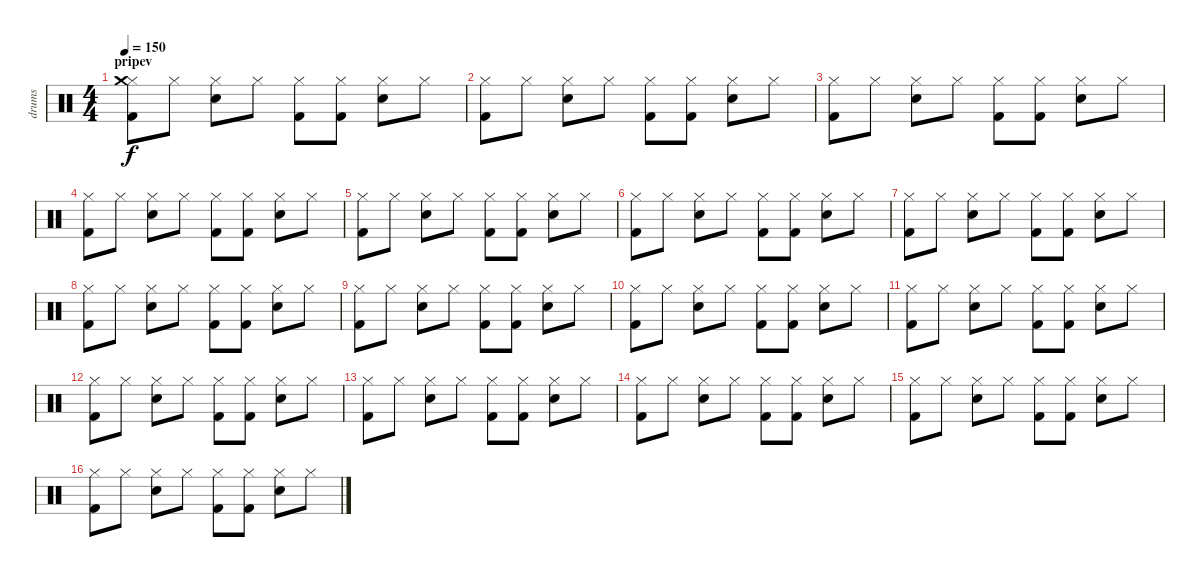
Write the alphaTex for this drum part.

\track ("drums" "drums") {instrument percussion}
\staff {score}
\articulation defaults
\ts (4 4)
\section ("" "pripev")
\tempo 150
\clef neutral
\ks c
("Kick (hit) 2" "Hi-Hat (closed)" "Crash medium (hit)").8{dy f} "Hi-Hat (closed)".8 ("Snare (hit) 2" "Hi-Hat (closed)").8 "Hi-Hat (closed)".8 ("Kick (hit) 2" "Hi-Hat (closed)").8 ("Kick (hit) 2" "Hi-Hat (closed)").8 ("Snare (hit) 2" "Hi-Hat (closed)").8 "Hi-Hat (closed)".8 |
("Kick (hit) 2" "Hi-Hat (closed)").8 "Hi-Hat (closed)".8 ("Snare (hit) 2" "Hi-Hat (closed)").8 "Hi-Hat (closed)".8 ("Kick (hit) 2" "Hi-Hat (closed)").8 ("Kick (hit) 2" "Hi-Hat (closed)").8 ("Snare (hit) 2" "Hi-Hat (closed)").8 "Hi-Hat (closed)".8 |
("Kick (hit) 2" "Hi-Hat (closed)").8 "Hi-Hat (closed)".8 ("Snare (hit) 2" "Hi-Hat (closed)").8 "Hi-Hat (closed)".8 ("Kick (hit) 2" "Hi-Hat (closed)").8 ("Kick (hit) 2" "Hi-Hat (closed)").8 ("Snare (hit) 2" "Hi-Hat (closed)").8 "Hi-Hat (closed)".8 |
("Kick (hit) 2" "Hi-Hat (closed)").8 "Hi-Hat (closed)".8 ("Snare (hit) 2" "Hi-Hat (closed)").8 "Hi-Hat (closed)".8 ("Kick (hit) 2" "Hi-Hat (closed)").8 ("Kick (hit) 2" "Hi-Hat (closed)").8 ("Snare (hit) 2" "Hi-Hat (closed)").8 "Hi-Hat (closed)".8 |
("Kick (hit) 2" "Hi-Hat (closed)").8 "Hi-Hat (closed)".8 ("Snare (hit) 2" "Hi-Hat (closed)").8 "Hi-Hat (closed)".8 ("Kick (hit) 2" "Hi-Hat (closed)").8 ("Kick (hit) 2" "Hi-Hat (closed)").8 ("Snare (hit) 2" "Hi-Hat (closed)").8 "Hi-Hat (closed)".8 |
("Kick (hit) 2" "Hi-Hat (closed)").8 "Hi-Hat (closed)".8 ("Snare (hit) 2" "Hi-Hat (closed)").8 "Hi-Hat (closed)".8 ("Kick (hit) 2" "Hi-Hat (closed)").8 ("Kick (hit) 2" "Hi-Hat (closed)").8 ("Snare (hit) 2" "Hi-Hat (closed)").8 "Hi-Hat (closed)".8 |
("Kick (hit) 2" "Hi-Hat (closed)").8 "Hi-Hat (closed)".8 ("Snare (hit) 2" "Hi-Hat (closed)").8 "Hi-Hat (closed)".8 ("Kick (hit) 2" "Hi-Hat (closed)").8 ("Kick (hit) 2" "Hi-Hat (closed)").8 ("Snare (hit) 2" "Hi-Hat (closed)").8 "Hi-Hat (closed)".8 |
("Kick (hit) 2" "Hi-Hat (closed)").8 "Hi-Hat (closed)".8 ("Snare (hit) 2" "Hi-Hat (closed)").8 "Hi-Hat (closed)".8 ("Kick (hit) 2" "Hi-Hat (closed)").8 ("Kick (hit) 2" "Hi-Hat (closed)").8 ("Snare (hit) 2" "Hi-Hat (closed)").8 "Hi-Hat (closed)".8 |
("Kick (hit) 2" "Hi-Hat (closed)").8 "Hi-Hat (closed)".8 ("Snare (hit) 2" "Hi-Hat (closed)").8 "Hi-Hat (closed)".8 ("Kick (hit) 2" "Hi-Hat (closed)").8 ("Kick (hit) 2" "Hi-Hat (closed)").8 ("Snare (hit) 2" "Hi-Hat (closed)").8 "Hi-Hat (closed)".8 |
("Kick (hit) 2" "Hi-Hat (closed)").8 "Hi-Hat (closed)".8 ("Snare (hit) 2" "Hi-Hat (closed)").8 "Hi-Hat (closed)".8 ("Kick (hit) 2" "Hi-Hat (closed)").8 ("Kick (hit) 2" "Hi-Hat (closed)").8 ("Snare (hit) 2" "Hi-Hat (closed)").8 "Hi-Hat (closed)".8 |
("Kick (hit) 2" "Hi-Hat (closed)").8 "Hi-Hat (closed)".8 ("Snare (hit) 2" "Hi-Hat (closed)").8 "Hi-Hat (closed)".8 ("Kick (hit) 2" "Hi-Hat (closed)").8 ("Kick (hit) 2" "Hi-Hat (closed)").8 ("Snare (hit) 2" "Hi-Hat (closed)").8 "Hi-Hat (closed)".8 |
("Kick (hit) 2" "Hi-Hat (closed)").8 "Hi-Hat (closed)".8 ("Snare (hit) 2" "Hi-Hat (closed)").8 "Hi-Hat (closed)".8 ("Kick (hit) 2" "Hi-Hat (closed)").8 ("Kick (hit) 2" "Hi-Hat (closed)").8 ("Snare (hit) 2" "Hi-Hat (closed)").8 "Hi-Hat (closed)".8 |
("Kick (hit) 2" "Hi-Hat (closed)").8 "Hi-Hat (closed)".8 ("Snare (hit) 2" "Hi-Hat (closed)").8 "Hi-Hat (closed)".8 ("Kick (hit) 2" "Hi-Hat (closed)").8 ("Kick (hit) 2" "Hi-Hat (closed)").8 ("Snare (hit) 2" "Hi-Hat (closed)").8 "Hi-Hat (closed)".8 |
("Kick (hit) 2" "Hi-Hat (closed)").8 "Hi-Hat (closed)".8 ("Snare (hit) 2" "Hi-Hat (closed)").8 "Hi-Hat (closed)".8 ("Kick (hit) 2" "Hi-Hat (closed)").8 ("Kick (hit) 2" "Hi-Hat (closed)").8 ("Snare (hit) 2" "Hi-Hat (closed)").8 "Hi-Hat (closed)".8 |
("Kick (hit) 2" "Hi-Hat (closed)").8 "Hi-Hat (closed)".8 ("Snare (hit) 2" "Hi-Hat (closed)").8 "Hi-Hat (closed)".8 ("Kick (hit) 2" "Hi-Hat (closed)").8 ("Kick (hit) 2" "Hi-Hat (closed)").8 ("Snare (hit) 2" "Hi-Hat (closed)").8 "Hi-Hat (closed)".8 |
("Kick (hit) 2" "Hi-Hat (closed)").8 "Hi-Hat (closed)".8 ("Snare (hit) 2" "Hi-Hat (closed)").8 "Hi-Hat (closed)".8 ("Kick (hit) 2" "Hi-Hat (closed)").8 ("Kick (hit) 2" "Hi-Hat (closed)").8 ("Snare (hit) 2" "Hi-Hat (closed)").8 "Hi-Hat (closed)".8
